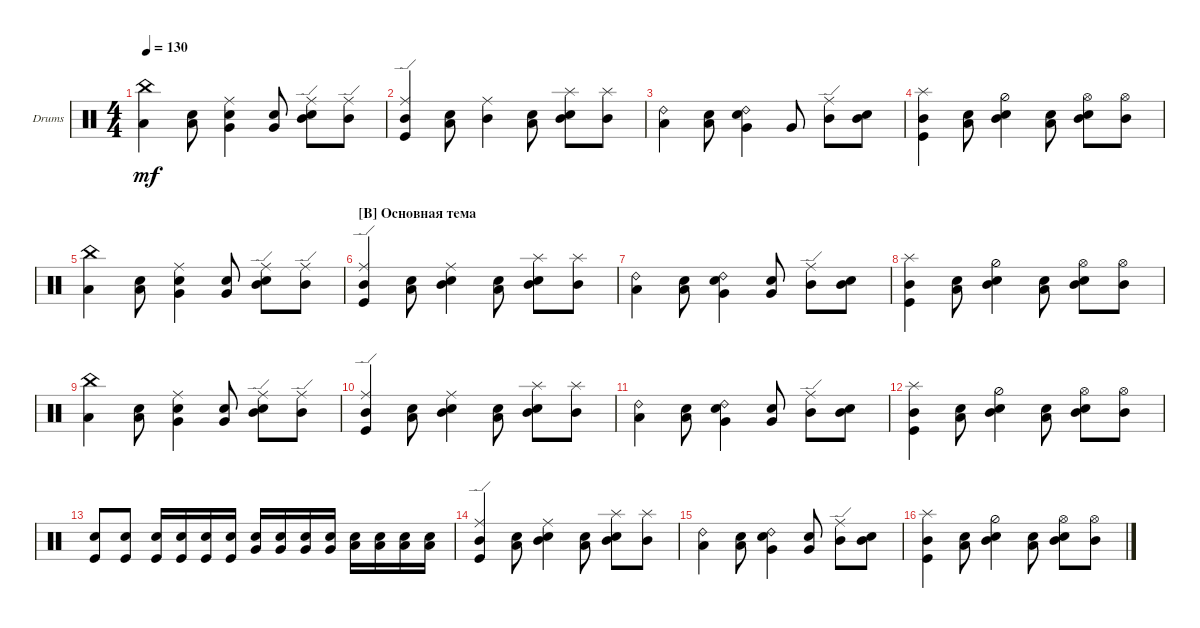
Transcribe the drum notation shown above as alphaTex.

\defaultSystemsLayout 4
\bracketExtendMode groupsimilarinstruments
\firstSystemTrackNameOrientation horizontal
\otherSystemsTrackNameOrientation horizontal
\track ("Drumkit" "Drums") {instrument percussion}
\staff {score}
\articulation defaults
\ts (4 4)
\tempo 130
\clef neutral
\ks c
("Low Tom (hit)" "China (hit)").4{dy mf} ("Low Tom (hit)" "Snare (hit) 2").8 ("Very Low Tom (hit)" "Snare (hit) 2" "Ride (middle)").4 ("Very Low Tom (hit)" "Snare (hit) 2").8 ("Mid Tom (hit)" "Snare (hit) 2" "Ride (edge)").8 ("Mid Tom (hit)" "Ride (edge)").8 |
("Mid Tom (hit)" "Kick (hit)" "Ride (edge)").4 ("Low Tom (hit)" "Snare (hit) 2").8 ("Mid Tom (hit)" "Ride (middle)").4 ("Low Tom (hit)" "Snare (hit) 2").8 ("Mid Tom (hit)" "Snare (hit) 2" "Splash (hit)").8 ("Mid Tom (hit)" "Splash (hit)").8 |
("Low Tom (hit)" "Ride (bell) 2").4 ("Low Tom (hit)" "Snare (hit) 2").8 ("Very Low Tom (hit)" "Snare (hit) 2" "Ride (bell) 2").4 "Very Low Tom (hit)".8 ("Mid Tom (hit)" "Ride (edge)").8 ("Mid Tom (hit)" "Snare (hit) 2").8 |
("Mid Tom (hit)" "Kick (hit)" "Splash (hit)").4 ("Low Tom (hit)" "Snare (hit) 2").8 ("Mid Tom (hit)" "Snare (hit) 2" "Hi-Hat (half)").4 ("Low Tom (hit)" "Snare (hit) 2").8 ("Mid Tom (hit)" "Snare (hit) 2" "Hi-Hat (open)").8 ("Mid Tom (hit)" "Hi-Hat (open)").8 |
("Low Tom (hit)" "China (hit)").4 ("Low Tom (hit)" "Snare (hit) 2").8 ("Very Low Tom (hit)" "Snare (hit) 2" "Ride (middle)").4 ("Very Low Tom (hit)" "Snare (hit) 2").8 ("Mid Tom (hit)" "Snare (hit) 2" "Ride (edge)").8 ("Mid Tom (hit)" "Ride (edge)").8 |
\section ("B" "Основная тема")
("Mid Tom (hit)" "Kick (hit)" "Ride (edge)").4 ("Low Tom (hit)" "Snare (hit) 2").8 ("Mid Tom (hit)" "Snare (hit) 2" "Ride (middle)").4 ("Low Tom (hit)" "Snare (hit) 2").8 ("Mid Tom (hit)" "Snare (hit) 2" "Splash (hit)").8 ("Mid Tom (hit)" "Splash (hit)").8 |
("Low Tom (hit)" "Ride (bell) 2").4 ("Low Tom (hit)" "Snare (hit) 2").8 ("Very Low Tom (hit)" "Snare (hit) 2" "Ride (bell) 2").4 ("Very Low Tom (hit)" "Snare (hit) 2").8 ("Mid Tom (hit)" "Ride (edge)").8 ("Mid Tom (hit)" "Snare (hit) 2").8 |
("Mid Tom (hit)" "Kick (hit)" "Splash (hit)").4 ("Low Tom (hit)" "Snare (hit) 2").8 ("Mid Tom (hit)" "Snare (hit) 2" "Hi-Hat (half)").4 ("Low Tom (hit)" "Snare (hit) 2").8 ("Mid Tom (hit)" "Snare (hit) 2" "Hi-Hat (open)").8 ("Mid Tom (hit)" "Hi-Hat (open)").8 |
("Low Tom (hit)" "China (hit)").4 ("Low Tom (hit)" "Snare (hit) 2").8 ("Very Low Tom (hit)" "Snare (hit) 2" "Ride (middle)").4 ("Very Low Tom (hit)" "Snare (hit) 2").8 ("Mid Tom (hit)" "Snare (hit) 2" "Ride (edge)").8 ("Mid Tom (hit)" "Ride (edge)").8 |
("Mid Tom (hit)" "Kick (hit)" "Ride (edge)").4 ("Low Tom (hit)" "Snare (hit) 2").8 ("Mid Tom (hit)" "Snare (hit) 2" "Ride (middle)").4 ("Low Tom (hit)" "Snare (hit) 2").8 ("Mid Tom (hit)" "Snare (hit) 2" "Splash (hit)").8 ("Mid Tom (hit)" "Splash (hit)").8 |
("Low Tom (hit)" "Ride (bell) 2").4 ("Low Tom (hit)" "Snare (hit) 2").8 ("Very Low Tom (hit)" "Snare (hit) 2" "Ride (bell) 2").4 ("Very Low Tom (hit)" "Snare (hit) 2").8 ("Mid Tom (hit)" "Ride (edge)").8 ("Mid Tom (hit)" "Snare (hit) 2").8 |
("Mid Tom (hit)" "Kick (hit)" "Splash (hit)").4 ("Low Tom (hit)" "Snare (hit) 2").8 ("Mid Tom (hit)" "Snare (hit) 2" "Hi-Hat (half)").4 ("Low Tom (hit)" "Snare (hit) 2").8 ("Mid Tom (hit)" "Snare (hit) 2" "Hi-Hat (open)").8 ("Mid Tom (hit)" "Hi-Hat (open)").8 |
("Snare (hit) 2" "Kick (hit)").8 ("Snare (hit) 2" "Kick (hit)").8 ("Snare (hit) 2" "Kick (hit)").16 ("Snare (hit) 2" "Kick (hit)").16 ("Snare (hit) 2" "Kick (hit)").16 ("Snare (hit) 2" "Kick (hit)").16 ("Snare (hit) 2" "Very Low Tom (hit)").16 ("Snare (hit) 2" "Very Low Tom (hit)").16 ("Snare (hit) 2" "Very Low Tom (hit)").16 ("Snare (hit) 2" "Very Low Tom (hit)").16 ("Snare (hit) 2" "Low Tom (hit)").16 ("Snare (hit) 2" "Low Tom (hit)").16 ("Snare (hit) 2" "Low Tom (hit)").16 ("Snare (hit) 2" "Low Tom (hit)").16 |
("Mid Tom (hit)" "Kick (hit)" "Ride (edge)").4 ("Low Tom (hit)" "Snare (hit) 2").8 ("Mid Tom (hit)" "Snare (hit) 2" "Ride (middle)").4 ("Low Tom (hit)" "Snare (hit) 2").8 ("Mid Tom (hit)" "Snare (hit) 2" "Splash (hit)").8 ("Mid Tom (hit)" "Splash (hit)").8 |
("Low Tom (hit)" "Ride (bell) 2").4 ("Low Tom (hit)" "Snare (hit) 2").8 ("Very Low Tom (hit)" "Snare (hit) 2" "Ride (bell) 2").4 ("Very Low Tom (hit)" "Snare (hit) 2").8 ("Mid Tom (hit)" "Ride (edge)").8 ("Mid Tom (hit)" "Snare (hit) 2").8 |
("Mid Tom (hit)" "Kick (hit)" "Splash (hit)").4 ("Low Tom (hit)" "Snare (hit) 2").8 ("Mid Tom (hit)" "Snare (hit) 2" "Hi-Hat (half)").4 ("Low Tom (hit)" "Snare (hit) 2").8 ("Mid Tom (hit)" "Snare (hit) 2" "Hi-Hat (open)").8 ("Mid Tom (hit)" "Hi-Hat (open)").8
